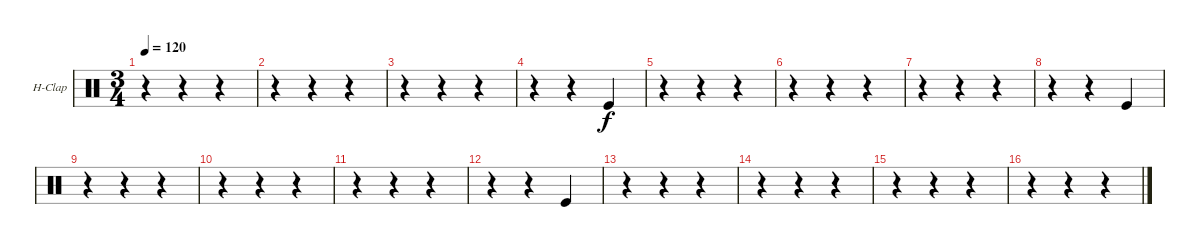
\bracketExtendMode groupsimilarinstruments
\firstSystemTrackNameOrientation horizontal
\otherSystemsTrackNameOrientation horizontal
\track ("Hand Clap" "H-Clap") {instrument percussion}
\staff {score}
\articulation defaults
\ts (3 4)
\tempo 120
\clef neutral
\ks c
r.4{dy f} r.4 r.4 |
r.4 r.4 r.4 |
r.4 r.4 r.4 |
r.4 r.4 "Kick (hit)".4 |
r.4 r.4 r.4 |
r.4 r.4 r.4 |
r.4 r.4 r.4 |
r.4 r.4 "Kick (hit)".4 |
r.4 r.4 r.4 |
r.4 r.4 r.4 |
r.4 r.4 r.4 |
r.4 r.4 "Kick (hit)".4 |
r.4 r.4 r.4 |
r.4 r.4 r.4 |
r.4 r.4 r.4 |
r.4 r.4 r.4
